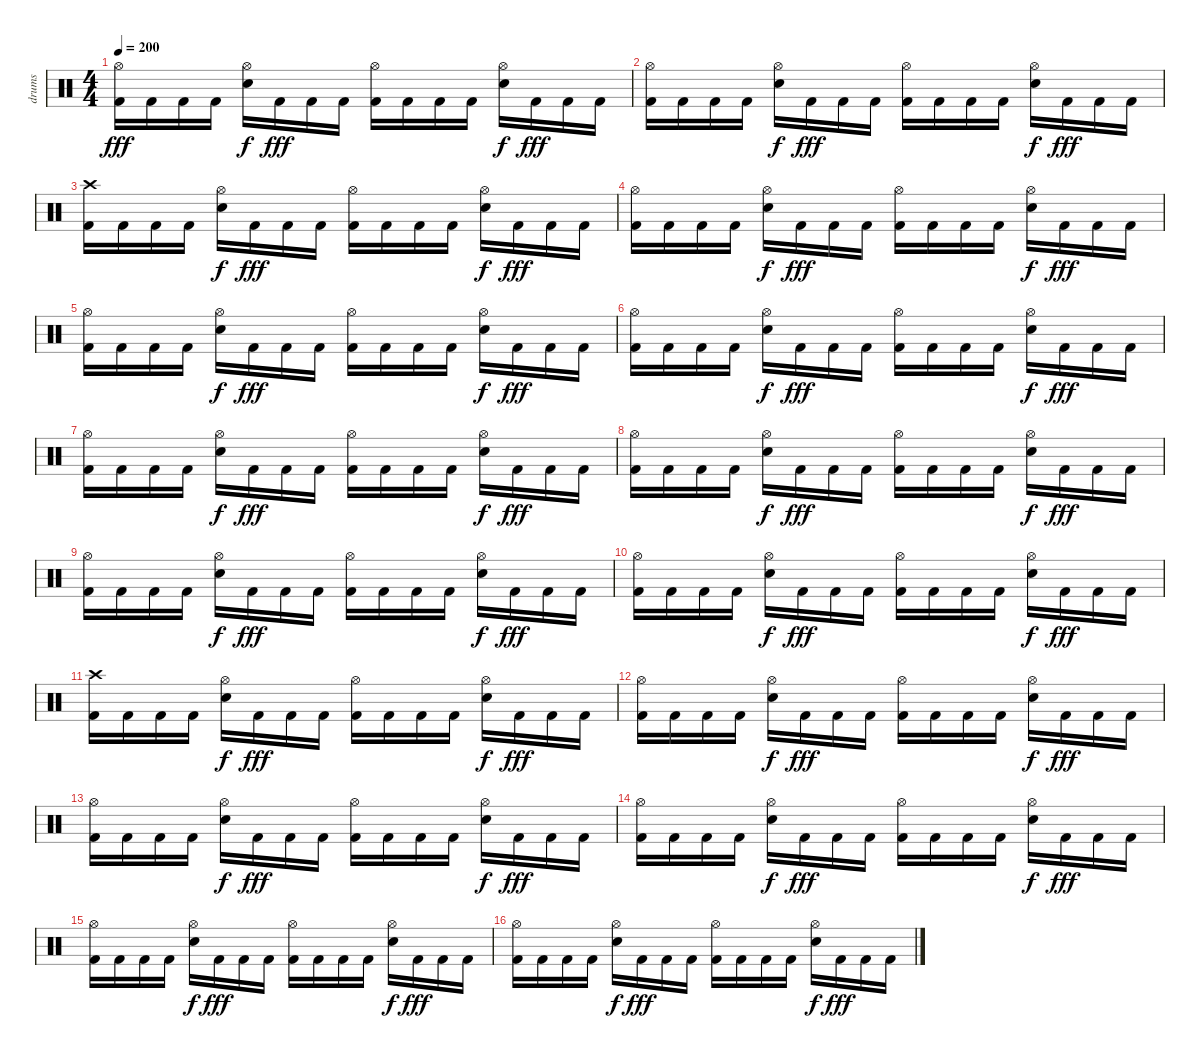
\track ("drums" "drums") {instrument percussion}
\staff {score}
\articulation defaults
\ts (4 4)
\tempo 200
\clef neutral
\ks c
("Hi-Hat (open)" "Kick (hit) 2").16{dy fff} "Kick (hit) 2".16 "Kick (hit) 2".16 "Kick (hit) 2".16 ("Hi-Hat (open)" "Snare (hit) 2").16{dy f} "Kick (hit) 2".16{dy fff} "Kick (hit) 2".16 "Kick (hit) 2".16 ("Hi-Hat (open)" "Kick (hit) 2").16 "Kick (hit) 2".16 "Kick (hit) 2".16 "Kick (hit) 2".16 ("Hi-Hat (open)" "Snare (hit) 2").16{dy f} "Kick (hit) 2".16{dy fff} "Kick (hit) 2".16 "Kick (hit) 2".16 |
("Hi-Hat (open)" "Kick (hit) 2").16 "Kick (hit) 2".16 "Kick (hit) 2".16 "Kick (hit) 2".16 ("Hi-Hat (open)" "Snare (hit) 2").16{dy f} "Kick (hit) 2".16{dy fff} "Kick (hit) 2".16 "Kick (hit) 2".16 ("Hi-Hat (open)" "Kick (hit) 2").16 "Kick (hit) 2".16 "Kick (hit) 2".16 "Kick (hit) 2".16 ("Hi-Hat (open)" "Snare (hit) 2").16{dy f} "Kick (hit) 2".16{dy fff} "Kick (hit) 2".16 "Kick (hit) 2".16 |
("Crash high (hit)" "Kick (hit) 2").16 "Kick (hit) 2".16 "Kick (hit) 2".16 "Kick (hit) 2".16 ("Hi-Hat (open)" "Snare (hit) 2").16{dy f} "Kick (hit) 2".16{dy fff} "Kick (hit) 2".16 "Kick (hit) 2".16 ("Hi-Hat (open)" "Kick (hit) 2").16 "Kick (hit) 2".16 "Kick (hit) 2".16 "Kick (hit) 2".16 ("Hi-Hat (open)" "Snare (hit) 2").16{dy f} "Kick (hit) 2".16{dy fff} "Kick (hit) 2".16 "Kick (hit) 2".16 |
("Hi-Hat (open)" "Kick (hit) 2").16 "Kick (hit) 2".16 "Kick (hit) 2".16 "Kick (hit) 2".16 ("Hi-Hat (open)" "Snare (hit) 2").16{dy f} "Kick (hit) 2".16{dy fff} "Kick (hit) 2".16 "Kick (hit) 2".16 ("Hi-Hat (open)" "Kick (hit) 2").16 "Kick (hit) 2".16 "Kick (hit) 2".16 "Kick (hit) 2".16 ("Hi-Hat (open)" "Snare (hit) 2").16{dy f} "Kick (hit) 2".16{dy fff} "Kick (hit) 2".16 "Kick (hit) 2".16 |
("Hi-Hat (open)" "Kick (hit) 2").16 "Kick (hit) 2".16 "Kick (hit) 2".16 "Kick (hit) 2".16 ("Hi-Hat (open)" "Snare (hit) 2").16{dy f} "Kick (hit) 2".16{dy fff} "Kick (hit) 2".16 "Kick (hit) 2".16 ("Hi-Hat (open)" "Kick (hit) 2").16 "Kick (hit) 2".16 "Kick (hit) 2".16 "Kick (hit) 2".16 ("Hi-Hat (open)" "Snare (hit) 2").16{dy f} "Kick (hit) 2".16{dy fff} "Kick (hit) 2".16 "Kick (hit) 2".16 |
("Hi-Hat (open)" "Kick (hit) 2").16 "Kick (hit) 2".16 "Kick (hit) 2".16 "Kick (hit) 2".16 ("Hi-Hat (open)" "Snare (hit) 2").16{dy f} "Kick (hit) 2".16{dy fff} "Kick (hit) 2".16 "Kick (hit) 2".16 ("Hi-Hat (open)" "Kick (hit) 2").16 "Kick (hit) 2".16 "Kick (hit) 2".16 "Kick (hit) 2".16 ("Hi-Hat (open)" "Snare (hit) 2").16{dy f} "Kick (hit) 2".16{dy fff} "Kick (hit) 2".16 "Kick (hit) 2".16 |
("Hi-Hat (open)" "Kick (hit) 2").16 "Kick (hit) 2".16 "Kick (hit) 2".16 "Kick (hit) 2".16 ("Hi-Hat (open)" "Snare (hit) 2").16{dy f} "Kick (hit) 2".16{dy fff} "Kick (hit) 2".16 "Kick (hit) 2".16 ("Hi-Hat (open)" "Kick (hit) 2").16 "Kick (hit) 2".16 "Kick (hit) 2".16 "Kick (hit) 2".16 ("Hi-Hat (open)" "Snare (hit) 2").16{dy f} "Kick (hit) 2".16{dy fff} "Kick (hit) 2".16 "Kick (hit) 2".16 |
("Hi-Hat (open)" "Kick (hit) 2").16 "Kick (hit) 2".16 "Kick (hit) 2".16 "Kick (hit) 2".16 ("Hi-Hat (open)" "Snare (hit) 2").16{dy f} "Kick (hit) 2".16{dy fff} "Kick (hit) 2".16 "Kick (hit) 2".16 ("Hi-Hat (open)" "Kick (hit) 2").16 "Kick (hit) 2".16 "Kick (hit) 2".16 "Kick (hit) 2".16 ("Hi-Hat (open)" "Snare (hit) 2").16{dy f} "Kick (hit) 2".16{dy fff} "Kick (hit) 2".16 "Kick (hit) 2".16 |
("Hi-Hat (open)" "Kick (hit) 2").16 "Kick (hit) 2".16 "Kick (hit) 2".16 "Kick (hit) 2".16 ("Hi-Hat (open)" "Snare (hit) 2").16{dy f} "Kick (hit) 2".16{dy fff} "Kick (hit) 2".16 "Kick (hit) 2".16 ("Hi-Hat (open)" "Kick (hit) 2").16 "Kick (hit) 2".16 "Kick (hit) 2".16 "Kick (hit) 2".16 ("Hi-Hat (open)" "Snare (hit) 2").16{dy f} "Kick (hit) 2".16{dy fff} "Kick (hit) 2".16 "Kick (hit) 2".16 |
("Hi-Hat (open)" "Kick (hit) 2").16 "Kick (hit) 2".16 "Kick (hit) 2".16 "Kick (hit) 2".16 ("Hi-Hat (open)" "Snare (hit) 2").16{dy f} "Kick (hit) 2".16{dy fff} "Kick (hit) 2".16 "Kick (hit) 2".16 ("Hi-Hat (open)" "Kick (hit) 2").16 "Kick (hit) 2".16 "Kick (hit) 2".16 "Kick (hit) 2".16 ("Hi-Hat (open)" "Snare (hit) 2").16{dy f} "Kick (hit) 2".16{dy fff} "Kick (hit) 2".16 "Kick (hit) 2".16 |
("Crash high (hit)" "Kick (hit) 2").16 "Kick (hit) 2".16 "Kick (hit) 2".16 "Kick (hit) 2".16 ("Hi-Hat (open)" "Snare (hit) 2").16{dy f} "Kick (hit) 2".16{dy fff} "Kick (hit) 2".16 "Kick (hit) 2".16 ("Hi-Hat (open)" "Kick (hit) 2").16 "Kick (hit) 2".16 "Kick (hit) 2".16 "Kick (hit) 2".16 ("Hi-Hat (open)" "Snare (hit) 2").16{dy f} "Kick (hit) 2".16{dy fff} "Kick (hit) 2".16 "Kick (hit) 2".16 |
("Hi-Hat (open)" "Kick (hit) 2").16 "Kick (hit) 2".16 "Kick (hit) 2".16 "Kick (hit) 2".16 ("Hi-Hat (open)" "Snare (hit) 2").16{dy f} "Kick (hit) 2".16{dy fff} "Kick (hit) 2".16 "Kick (hit) 2".16 ("Hi-Hat (open)" "Kick (hit) 2").16 "Kick (hit) 2".16 "Kick (hit) 2".16 "Kick (hit) 2".16 ("Hi-Hat (open)" "Snare (hit) 2").16{dy f} "Kick (hit) 2".16{dy fff} "Kick (hit) 2".16 "Kick (hit) 2".16 |
("Hi-Hat (open)" "Kick (hit) 2").16 "Kick (hit) 2".16 "Kick (hit) 2".16 "Kick (hit) 2".16 ("Hi-Hat (open)" "Snare (hit) 2").16{dy f} "Kick (hit) 2".16{dy fff} "Kick (hit) 2".16 "Kick (hit) 2".16 ("Hi-Hat (open)" "Kick (hit) 2").16 "Kick (hit) 2".16 "Kick (hit) 2".16 "Kick (hit) 2".16 ("Hi-Hat (open)" "Snare (hit) 2").16{dy f} "Kick (hit) 2".16{dy fff} "Kick (hit) 2".16 "Kick (hit) 2".16 |
("Hi-Hat (open)" "Kick (hit) 2").16 "Kick (hit) 2".16 "Kick (hit) 2".16 "Kick (hit) 2".16 ("Hi-Hat (open)" "Snare (hit) 2").16{dy f} "Kick (hit) 2".16{dy fff} "Kick (hit) 2".16 "Kick (hit) 2".16 ("Hi-Hat (open)" "Kick (hit) 2").16 "Kick (hit) 2".16 "Kick (hit) 2".16 "Kick (hit) 2".16 ("Hi-Hat (open)" "Snare (hit) 2").16{dy f} "Kick (hit) 2".16{dy fff} "Kick (hit) 2".16 "Kick (hit) 2".16 |
("Hi-Hat (open)" "Kick (hit) 2").16 "Kick (hit) 2".16 "Kick (hit) 2".16 "Kick (hit) 2".16 ("Hi-Hat (open)" "Snare (hit) 2").16{dy f} "Kick (hit) 2".16{dy fff} "Kick (hit) 2".16 "Kick (hit) 2".16 ("Hi-Hat (open)" "Kick (hit) 2").16 "Kick (hit) 2".16 "Kick (hit) 2".16 "Kick (hit) 2".16 ("Hi-Hat (open)" "Snare (hit) 2").16{dy f} "Kick (hit) 2".16{dy fff} "Kick (hit) 2".16 "Kick (hit) 2".16 |
("Hi-Hat (open)" "Kick (hit) 2").16 "Kick (hit) 2".16 "Kick (hit) 2".16 "Kick (hit) 2".16 ("Hi-Hat (open)" "Snare (hit) 2").16{dy f} "Kick (hit) 2".16{dy fff} "Kick (hit) 2".16 "Kick (hit) 2".16 ("Hi-Hat (open)" "Kick (hit) 2").16 "Kick (hit) 2".16 "Kick (hit) 2".16 "Kick (hit) 2".16 ("Hi-Hat (open)" "Snare (hit) 2").16{dy f} "Kick (hit) 2".16{dy fff} "Kick (hit) 2".16 "Kick (hit) 2".16
